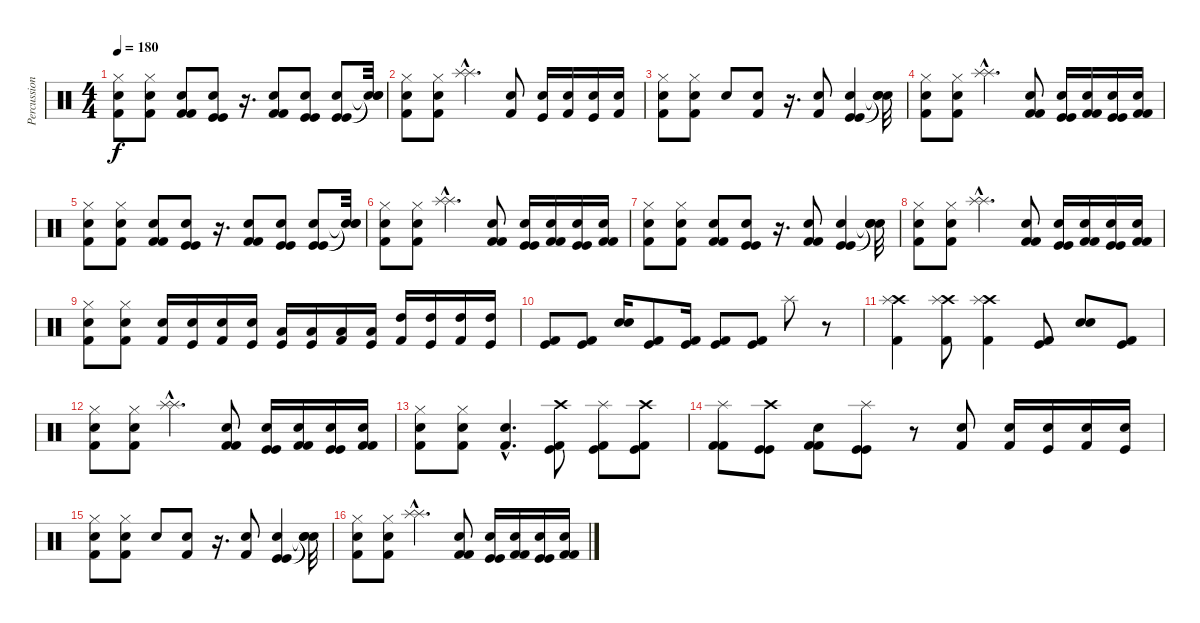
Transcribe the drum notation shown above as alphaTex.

\track ("Percussion" "Percussion") {instrument percussion}
\staff {score}
\articulation defaults
\ts (4 4)
\tempo 180
\clef neutral
\ks c
("Hi-Hat (closed)" "Electric Snare (hit)" "Kick (hit) 2").8{dy f} ("Hi-Hat (closed)" "Electric Snare (hit)" "Kick (hit) 2").8 ("Kick (hit) 2" "Electric Snare (hit)" "Kick (hit) 2").8 ("Kick (hit)" "Electric Snare (hit)" "Kick (hit)").8 r.16{d} ("Kick (hit) 2" "Electric Snare (hit)" "Kick (hit) 2").8 ("Kick (hit)" "Electric Snare (hit)" "Kick (hit)").8 ("Kick (hit)" "Electric Snare (hit)" "Kick (hit)").8 ("Snare (hit)"{t} "Snare (hit)"{t} "Snare (hit)"{t}).32 |
("Hi-Hat (closed)" "Electric Snare (hit)" "Kick (hit) 2").8 ("Hi-Hat (closed)" "Electric Snare (hit)" "Kick (hit) 2").8 ("Splash (hit)"{hac} "Splash (hit)"{hac}).4{d} ("Electric Snare (hit)" "Kick (hit) 2").8 ("Electric Snare (hit)" "Kick (hit)").16 ("Electric Snare (hit)" "Kick (hit) 2").16 ("Electric Snare (hit)" "Kick (hit)").16 ("Electric Snare (hit)" "Kick (hit) 2").16 |
("Hi-Hat (closed)" "Electric Snare (hit)" "Kick (hit) 2").8 ("Hi-Hat (closed)" "Electric Snare (hit)" "Kick (hit) 2").8 "Electric Snare (hit)".8 ("Electric Snare (hit)" "Kick (hit) 2").8 r.16{d} ("Electric Snare (hit)" "Kick (hit) 2").8 ("Kick (hit)" "Electric Snare (hit)" "Kick (hit)").4 ("Snare (hit)"{t} "Snare (hit)"{t} "Snare (hit)"{t}).32 |
("Hi-Hat (closed)" "Electric Snare (hit)" "Kick (hit) 2").8 ("Hi-Hat (closed)" "Electric Snare (hit)" "Kick (hit) 2").8 ("Splash (hit)"{hac} "Splash (hit)"{hac}).4{d} ("Kick (hit) 2" "Electric Snare (hit)" "Kick (hit) 2").8 ("Kick (hit)" "Electric Snare (hit)" "Kick (hit)").16 ("Kick (hit) 2" "Electric Snare (hit)" "Kick (hit) 2").16 ("Kick (hit)" "Electric Snare (hit)" "Kick (hit)").16 ("Kick (hit) 2" "Electric Snare (hit)" "Kick (hit) 2").16 |
("Hi-Hat (closed)" "Electric Snare (hit)" "Kick (hit) 2").8 ("Hi-Hat (closed)" "Electric Snare (hit)" "Kick (hit) 2").8 ("Kick (hit) 2" "Electric Snare (hit)" "Kick (hit) 2").8 ("Kick (hit)" "Electric Snare (hit)" "Kick (hit)").8 r.16{d} ("Kick (hit) 2" "Electric Snare (hit)" "Kick (hit) 2").8 ("Kick (hit)" "Electric Snare (hit)" "Kick (hit)").8 ("Kick (hit)" "Electric Snare (hit)" "Kick (hit)").8 ("Snare (hit)"{t} "Snare (hit)"{t} "Snare (hit)"{t}).32 |
("Hi-Hat (closed)" "Electric Snare (hit)" "Kick (hit) 2").8 ("Hi-Hat (closed)" "Electric Snare (hit)" "Kick (hit) 2").8 ("Splash (hit)"{hac} "Splash (hit)"{hac}).4{d} ("Kick (hit) 2" "Electric Snare (hit)" "Kick (hit) 2").8 ("Kick (hit)" "Electric Snare (hit)" "Kick (hit)").16 ("Kick (hit) 2" "Electric Snare (hit)" "Kick (hit) 2").16 ("Kick (hit)" "Electric Snare (hit)" "Kick (hit)").16 ("Kick (hit) 2" "Electric Snare (hit)" "Kick (hit) 2").16 |
("Hi-Hat (closed)" "Electric Snare (hit)" "Kick (hit) 2").8 ("Hi-Hat (closed)" "Electric Snare (hit)" "Kick (hit) 2").8 ("Kick (hit) 2" "Electric Snare (hit)" "Kick (hit) 2").8 ("Kick (hit)" "Electric Snare (hit)" "Kick (hit)").8 r.16{d} ("Kick (hit) 2" "Electric Snare (hit)" "Kick (hit) 2").8 ("Kick (hit)" "Electric Snare (hit)" "Kick (hit)").4 ("Snare (hit)"{t} "Snare (hit)"{t} "Snare (hit)"{t}).32 |
("Hi-Hat (closed)" "Electric Snare (hit)" "Kick (hit) 2").8 ("Hi-Hat (closed)" "Electric Snare (hit)" "Kick (hit) 2").8 ("Splash (hit)"{hac} "Splash (hit)"{hac}).4{d} ("Kick (hit) 2" "Electric Snare (hit)" "Kick (hit) 2").8 ("Kick (hit)" "Electric Snare (hit)" "Kick (hit)").16 ("Kick (hit) 2" "Electric Snare (hit)" "Kick (hit) 2").16 ("Kick (hit)" "Electric Snare (hit)" "Kick (hit)").16 ("Kick (hit) 2" "Electric Snare (hit)" "Kick (hit) 2").16 |
("Hi-Hat (closed)" "Electric Snare (hit)" "Kick (hit) 2").8 ("Hi-Hat (closed)" "Electric Snare (hit)" "Kick (hit) 2").8 ("Electric Snare (hit)" "Kick (hit) 2").16 ("Electric Snare (hit)" "Kick (hit)").16 ("Electric Snare (hit)" "Kick (hit) 2").16 ("Electric Snare (hit)" "Kick (hit)").16 ("Low Tom (hit)" "Kick (hit)").16 ("Low Tom (hit)" "Kick (hit)").16 ("Low Tom (hit)" "Kick (hit) 2").16 ("Low Tom (hit)" "Kick (hit)").16 ("High Tom (hit)" "Kick (hit) 2").16 ("High Tom (hit)" "Kick (hit)").16 ("High Tom (hit)" "Kick (hit) 2").16 ("High Tom (hit)" "Kick (hit)").16 |
("Kick (hit)" "Kick (hit) 2").8 ("Kick (hit)" "Kick (hit) 2").8 ("Electric Snare (hit)" "Electric Snare (hit)").16 ("Kick (hit)" "Kick (hit) 2").8 ("Kick (hit)" "Kick (hit) 2").16 ("Kick (hit)" "Kick (hit) 2").8 ("Kick (hit)" "Kick (hit) 2").8 "Splash (hit)".8 r.8 |
("Kick (hit) 2" "Crash high (hit)" "Splash (hit)").4 ("Kick (hit) 2" "Crash high (hit)" "Splash (hit)").8 ("Crash high (hit)" "Splash (hit)" "Kick (hit) 2").4 ("Kick (hit)" "Kick (hit) 2").8 ("Electric Snare (hit)" "Electric Snare (hit)").8 ("Kick (hit)" "Kick (hit) 2").8 |
("Hi-Hat (closed)" "Electric Snare (hit)" "Kick (hit) 2").8 ("Hi-Hat (closed)" "Electric Snare (hit)" "Kick (hit) 2").8 ("Splash (hit)"{hac} "Splash (hit)"{hac}).4{d} ("Kick (hit) 2" "Electric Snare (hit)" "Kick (hit) 2").8 ("Kick (hit)" "Electric Snare (hit)" "Kick (hit)").16 ("Kick (hit) 2" "Electric Snare (hit)" "Kick (hit) 2").16 ("Kick (hit)" "Electric Snare (hit)" "Kick (hit)").16 ("Kick (hit) 2" "Electric Snare (hit)" "Kick (hit) 2").16 |
("Hi-Hat (closed)" "Electric Snare (hit)" "Kick (hit) 2").8 ("Hi-Hat (closed)" "Electric Snare (hit)" "Kick (hit) 2").8 ("Electric Snare (hit)"{hac} "Kick (hit) 2"{hac}).4{d} ("Crash high (hit)" "Kick (hit)" "Kick (hit) 2").8 ("Splash (hit)" "Kick (hit)" "Kick (hit) 2").8 ("Crash high (hit)" "Kick (hit)" "Kick (hit) 2").8 |
("Splash (hit)" "Kick (hit) 2" "Kick (hit) 2").8 ("Crash high (hit)" "Kick (hit)" "Kick (hit)").8 ("Electric Snare (hit)" "Kick (hit) 2" "Kick (hit) 2").8 ("Splash (hit)" "Kick (hit)" "Kick (hit)").8 r.8 ("Electric Snare (hit)" "Kick (hit) 2").8 ("Electric Snare (hit)" "Kick (hit) 2").16 ("Electric Snare (hit)" "Kick (hit)").16 ("Electric Snare (hit)" "Kick (hit) 2").16 ("Electric Snare (hit)" "Kick (hit)").16 |
("Hi-Hat (closed)" "Electric Snare (hit)" "Kick (hit) 2").8 ("Hi-Hat (closed)" "Electric Snare (hit)" "Kick (hit) 2").8 "Electric Snare (hit)".8 ("Electric Snare (hit)" "Kick (hit) 2").8 r.16{d} ("Electric Snare (hit)" "Kick (hit) 2").8 ("Kick (hit)" "Electric Snare (hit)" "Kick (hit)").4 ("Snare (hit)"{t} "Snare (hit)"{t} "Snare (hit)"{t}).32 |
("Hi-Hat (closed)" "Electric Snare (hit)" "Kick (hit) 2").8 ("Hi-Hat (closed)" "Electric Snare (hit)" "Kick (hit) 2").8 ("Splash (hit)"{hac} "Splash (hit)"{hac}).4{d} ("Kick (hit) 2" "Electric Snare (hit)" "Kick (hit) 2").8 ("Kick (hit)" "Electric Snare (hit)" "Kick (hit)").16 ("Kick (hit) 2" "Electric Snare (hit)" "Kick (hit) 2").16 ("Kick (hit)" "Electric Snare (hit)" "Kick (hit)").16 ("Kick (hit) 2" "Electric Snare (hit)" "Kick (hit) 2").16
